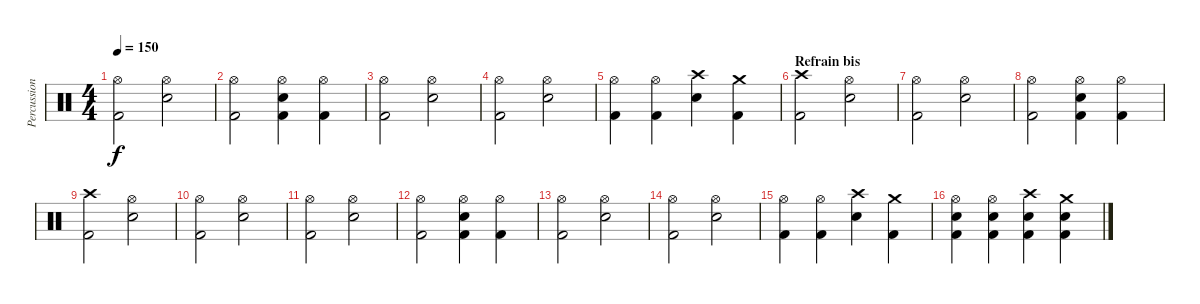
\track ("Percussions" "Percussion") {instrument percussion}
\staff {score}
\articulation defaults
\ts (4 4)
\tempo 150
\clef neutral
\ks c
("Hi-Hat (open)" "Kick (hit) 2").2{dy f} ("Hi-Hat (open)" "Snare (hit) 2").2 |
("Hi-Hat (open)" "Kick (hit) 2").2 ("Hi-Hat (open)" "Snare (hit) 2" "Kick (hit) 2").4 ("Hi-Hat (open)" "Kick (hit) 2").4 |
("Hi-Hat (open)" "Kick (hit) 2").2 ("Hi-Hat (open)" "Snare (hit) 2").2 |
("Hi-Hat (open)" "Kick (hit) 2").2 ("Hi-Hat (open)" "Snare (hit) 2").2 |
("Hi-Hat (open)" "Kick (hit) 2").4 ("Hi-Hat (open)" "Kick (hit) 2").4 ("Crash high (hit)" "Snare (hit) 2").4 ("Crash medium (hit)" "Kick (hit) 2").4 |
\section ("" "Refrain bis")
("Crash high (hit)" "Kick (hit) 2").2 ("Hi-Hat (open)" "Snare (hit) 2").2 |
("Hi-Hat (open)" "Kick (hit) 2").2 ("Hi-Hat (open)" "Snare (hit) 2").2 |
("Hi-Hat (open)" "Kick (hit) 2").2 ("Hi-Hat (open)" "Snare (hit) 2" "Kick (hit) 2").4 ("Hi-Hat (open)" "Kick (hit) 2").4 |
("Crash high (hit)" "Kick (hit) 2").2 ("Hi-Hat (open)" "Snare (hit) 2").2 |
("Hi-Hat (open)" "Kick (hit) 2").2 ("Hi-Hat (open)" "Snare (hit) 2").2 |
("Hi-Hat (open)" "Kick (hit) 2").2 ("Hi-Hat (open)" "Snare (hit) 2").2 |
("Hi-Hat (open)" "Kick (hit) 2").2 ("Hi-Hat (open)" "Snare (hit) 2" "Kick (hit) 2").4 ("Hi-Hat (open)" "Kick (hit) 2").4 |
("Hi-Hat (open)" "Kick (hit) 2").2 ("Hi-Hat (open)" "Snare (hit) 2").2 |
("Hi-Hat (open)" "Kick (hit) 2").2 ("Hi-Hat (open)" "Snare (hit) 2").2 |
("Hi-Hat (open)" "Kick (hit) 2").4 ("Hi-Hat (open)" "Kick (hit) 2").4 ("Crash high (hit)" "Snare (hit) 2").4 ("Crash medium (hit)" "Kick (hit) 2").4 |
("Hi-Hat (open)" "Snare (hit) 2" "Kick (hit) 2").4 ("Hi-Hat (open)" "Snare (hit) 2" "Kick (hit) 2").4 ("Crash high (hit)" "Snare (hit) 2" "Kick (hit) 2").4 ("Crash medium (hit)" "Snare (hit) 2" "Kick (hit) 2").4
